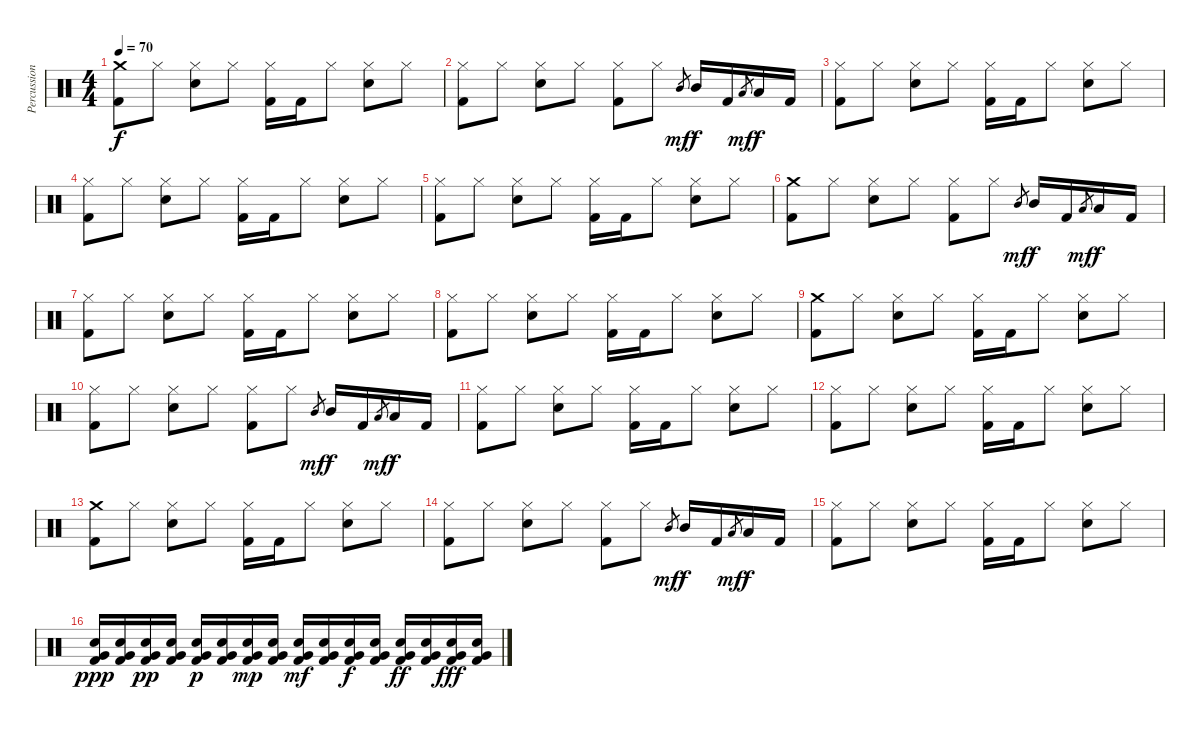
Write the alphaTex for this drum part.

\track ("Percussions" "Percussion") {instrument percussion}
\staff {score}
\articulation defaults
\ts (4 4)
\tempo 70
\clef neutral
\ks c
("Crash medium (hit)" "Kick (hit) 2").8{dy f} "Hi-Hat (closed)".8 ("Hi-Hat (closed)" "Snare (hit) 2").8 "Hi-Hat (closed)".8 ("Hi-Hat (closed)" "Kick (hit) 2").16 "Kick (hit) 2".16 "Hi-Hat (closed)".8 ("Hi-Hat (closed)" "Snare (hit) 2").8 "Hi-Hat (closed)".8 |
("Hi-Hat (closed)" "Kick (hit) 2").8 "Hi-Hat (closed)".8 ("Hi-Hat (closed)" "Snare (hit) 2").8 "Hi-Hat (closed)".8 ("Hi-Hat (closed)" "Kick (hit) 2").8 "Hi-Hat (closed)".8 "Mid Tom (hit)".8{gr dy mf} "Mid Tom (hit)".16{dy f} "Kick (hit) 2".16 "Low Tom (hit)".8{gr dy mf} "Low Tom (hit)".16{dy f} "Kick (hit) 2".16 |
("Hi-Hat (closed)" "Kick (hit) 2").8 "Hi-Hat (closed)".8 ("Hi-Hat (closed)" "Snare (hit) 2").8 "Hi-Hat (closed)".8 ("Hi-Hat (closed)" "Kick (hit) 2").16 "Kick (hit) 2".16 "Hi-Hat (closed)".8 ("Hi-Hat (closed)" "Snare (hit) 2").8 "Hi-Hat (closed)".8 |
("Hi-Hat (closed)" "Kick (hit) 2").8 "Hi-Hat (closed)".8 ("Hi-Hat (closed)" "Snare (hit) 2").8 "Hi-Hat (closed)".8 ("Hi-Hat (closed)" "Kick (hit) 2").16 "Kick (hit) 2".16 "Hi-Hat (closed)".8 ("Hi-Hat (closed)" "Snare (hit) 2").8 "Hi-Hat (closed)".8 |
("Hi-Hat (closed)" "Kick (hit) 2").8 "Hi-Hat (closed)".8 ("Hi-Hat (closed)" "Snare (hit) 2").8 "Hi-Hat (closed)".8 ("Hi-Hat (closed)" "Kick (hit) 2").16 "Kick (hit) 2".16 "Hi-Hat (closed)".8 ("Hi-Hat (closed)" "Snare (hit) 2").8 "Hi-Hat (closed)".8 |
("Crash medium (hit)" "Kick (hit) 2").8 "Hi-Hat (closed)".8 ("Hi-Hat (closed)" "Snare (hit) 2").8 "Hi-Hat (closed)".8 ("Hi-Hat (closed)" "Kick (hit) 2").8 "Hi-Hat (closed)".8 "Mid Tom (hit)".8{gr dy mf} "Mid Tom (hit)".16{dy f} "Kick (hit) 2".16 "Low Tom (hit)".8{gr dy mf} "Low Tom (hit)".16{dy f} "Kick (hit) 2".16 |
("Hi-Hat (closed)" "Kick (hit) 2").8 "Hi-Hat (closed)".8 ("Hi-Hat (closed)" "Snare (hit) 2").8 "Hi-Hat (closed)".8 ("Hi-Hat (closed)" "Kick (hit) 2").16 "Kick (hit) 2".16 "Hi-Hat (closed)".8 ("Hi-Hat (closed)" "Snare (hit) 2").8 "Hi-Hat (closed)".8 |
("Hi-Hat (closed)" "Kick (hit) 2").8 "Hi-Hat (closed)".8 ("Hi-Hat (closed)" "Snare (hit) 2").8 "Hi-Hat (closed)".8 ("Hi-Hat (closed)" "Kick (hit) 2").16 "Kick (hit) 2".16 "Hi-Hat (closed)".8 ("Hi-Hat (closed)" "Snare (hit) 2").8 "Hi-Hat (closed)".8 |
("Crash medium (hit)" "Kick (hit) 2").8 "Hi-Hat (closed)".8 ("Hi-Hat (closed)" "Snare (hit) 2").8 "Hi-Hat (closed)".8 ("Hi-Hat (closed)" "Kick (hit) 2").16 "Kick (hit) 2".16 "Hi-Hat (closed)".8 ("Hi-Hat (closed)" "Snare (hit) 2").8 "Hi-Hat (closed)".8 |
("Hi-Hat (closed)" "Kick (hit) 2").8 "Hi-Hat (closed)".8 ("Hi-Hat (closed)" "Snare (hit) 2").8 "Hi-Hat (closed)".8 ("Hi-Hat (closed)" "Kick (hit) 2").8 "Hi-Hat (closed)".8 "Mid Tom (hit)".8{gr dy mf} "Mid Tom (hit)".16{dy f} "Kick (hit) 2".16 "Low Tom (hit)".8{gr dy mf} "Low Tom (hit)".16{dy f} "Kick (hit) 2".16 |
("Hi-Hat (closed)" "Kick (hit) 2").8 "Hi-Hat (closed)".8 ("Hi-Hat (closed)" "Snare (hit) 2").8 "Hi-Hat (closed)".8 ("Hi-Hat (closed)" "Kick (hit) 2").16 "Kick (hit) 2".16 "Hi-Hat (closed)".8 ("Hi-Hat (closed)" "Snare (hit) 2").8 "Hi-Hat (closed)".8 |
("Hi-Hat (closed)" "Kick (hit) 2").8 "Hi-Hat (closed)".8 ("Hi-Hat (closed)" "Snare (hit) 2").8 "Hi-Hat (closed)".8 ("Hi-Hat (closed)" "Kick (hit) 2").16 "Kick (hit) 2".16 "Hi-Hat (closed)".8 ("Hi-Hat (closed)" "Snare (hit) 2").8 "Hi-Hat (closed)".8 |
("Crash medium (hit)" "Kick (hit) 2").8 "Hi-Hat (closed)".8 ("Hi-Hat (closed)" "Snare (hit) 2").8 "Hi-Hat (closed)".8 ("Hi-Hat (closed)" "Kick (hit) 2").16 "Kick (hit) 2".16 "Hi-Hat (closed)".8 ("Hi-Hat (closed)" "Snare (hit) 2").8 "Hi-Hat (closed)".8 |
("Hi-Hat (closed)" "Kick (hit) 2").8 "Hi-Hat (closed)".8 ("Hi-Hat (closed)" "Snare (hit) 2").8 "Hi-Hat (closed)".8 ("Hi-Hat (closed)" "Kick (hit) 2").8 "Hi-Hat (closed)".8 "Mid Tom (hit)".8{gr dy mf} "Mid Tom (hit)".16{dy f} "Kick (hit) 2".16 "Low Tom (hit)".8{gr dy mf} "Low Tom (hit)".16{dy f} "Kick (hit) 2".16 |
("Hi-Hat (closed)" "Kick (hit) 2").8 "Hi-Hat (closed)".8 ("Hi-Hat (closed)" "Snare (hit) 2").8 "Hi-Hat (closed)".8 ("Hi-Hat (closed)" "Kick (hit) 2").16 "Kick (hit) 2".16 "Hi-Hat (closed)".8 ("Hi-Hat (closed)" "Snare (hit) 2").8 "Hi-Hat (closed)".8 |
("Very Low Tom (hit)" "Snare (hit) 2" "Kick (hit) 2").16{dy ppp} ("Very Low Tom (hit)" "Snare (hit) 2" "Kick (hit) 2").16 ("Very Low Tom (hit)" "Snare (hit) 2" "Kick (hit) 2").16{dy pp} ("Very Low Tom (hit)" "Snare (hit) 2" "Kick (hit) 2").16 ("Very Low Tom (hit)" "Snare (hit) 2" "Kick (hit) 2").16{dy p} ("Very Low Tom (hit)" "Snare (hit) 2" "Kick (hit) 2").16 ("Very Low Tom (hit)" "Snare (hit) 2" "Kick (hit) 2").16{dy mp} ("Very Low Tom (hit)" "Snare (hit) 2" "Kick (hit) 2").16 ("Very Low Tom (hit)" "Snare (hit) 2" "Kick (hit) 2").16{dy mf} ("Very Low Tom (hit)" "Snare (hit) 2" "Kick (hit) 2").16 ("Very Low Tom (hit)" "Snare (hit) 2" "Kick (hit) 2").16{dy f} ("Very Low Tom (hit)" "Snare (hit) 2" "Kick (hit) 2").16 ("Very Low Tom (hit)" "Snare (hit) 2" "Kick (hit) 2").16{dy ff} ("Very Low Tom (hit)" "Snare (hit) 2" "Kick (hit) 2").16 ("Very Low Tom (hit)" "Snare (hit) 2" "Kick (hit) 2").16{dy fff} ("Very Low Tom (hit)" "Snare (hit) 2" "Kick (hit) 2").16
